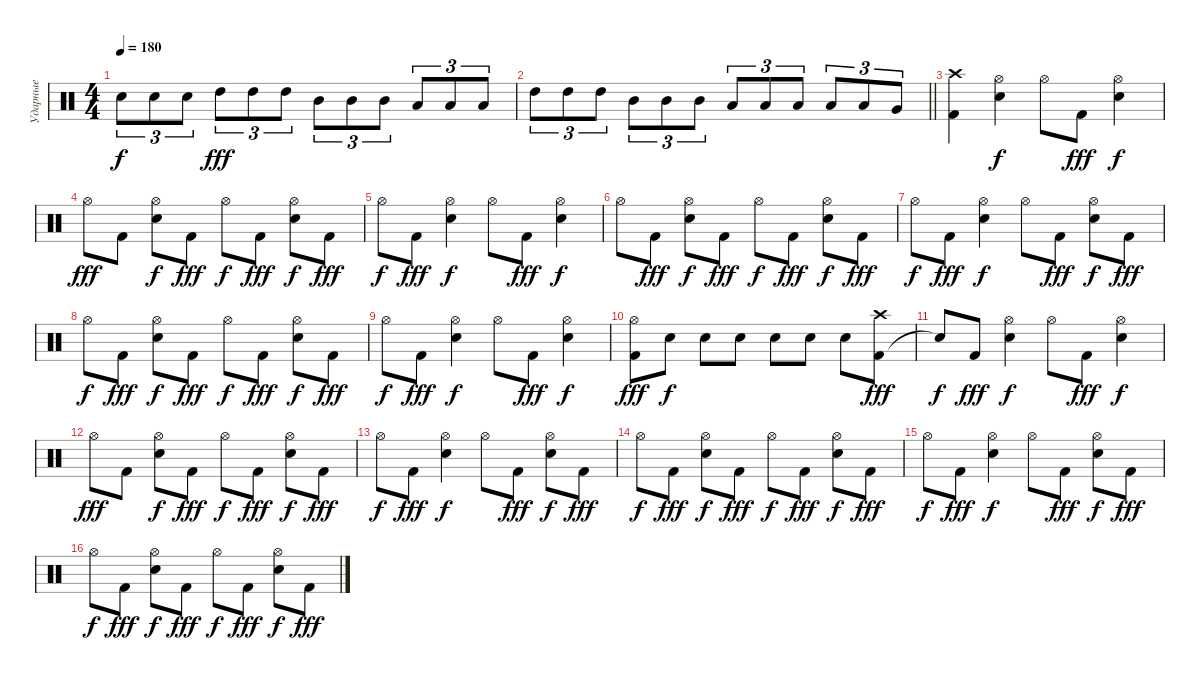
\track ("Ударные" "Ударные") {instrument percussion}
\staff
\articulation defaults
\ts (4 4)
\tempo 180
\clef neutral
\ks c "Snare (hit) 2".8{tu (3 2) dy f} "Snare (hit) 2".8{tu (3 2)} "Snare (hit) 2".8{tu (3 2)} "High Tom (hit)".8{tu (3 2) dy fff} "High Tom (hit)".8{tu (3 2)} "High Tom (hit)".8{tu (3 2)} "Mid Tom (hit)".8{tu (3 2)} "Mid Tom (hit)".8{tu (3 2)} "Mid Tom (hit)".8{tu (3 2)} "Low Tom (hit)".8{tu (3 2)} "Low Tom (hit)".8{tu (3 2)} "Low Tom (hit)".8{tu (3 2)}
|
\barLineRight lightlight "High Tom (hit)".8{tu (3 2)} "High Tom (hit)".8{tu (3 2)} "High Tom (hit)".8{tu (3 2)} "Mid Tom (hit)".8{tu (3 2)} "Mid Tom (hit)".8{tu (3 2)} "Mid Tom (hit)".8{tu (3 2)} "Low Tom (hit)".8{tu (3 2)} "Low Tom (hit)".8{tu (3 2)} "Low Tom (hit)".8{tu (3 2)} "Low Tom (hit)".8{tu (3 2)} "Low Tom (hit)".8{tu (3 2)} "Very Low Tom (hit)".8{tu (3 2)}
|
("Kick (hit) 2" "Crash high (hit)").4 ("Snare (hit) 2" "Hi-Hat (open)").4{dy f} "Hi-Hat (open)".8 "Kick (hit) 2".8{dy fff} ("Snare (hit) 2" "Hi-Hat (open)").4{dy f} |
"Hi-Hat (open)".8{dy fff} "Kick (hit) 2".8 ("Snare (hit) 2" "Hi-Hat (open)").8{dy f} "Kick (hit) 2".8{dy fff} "Hi-Hat (open)".8{dy f} "Kick (hit) 2".8{dy fff} ("Snare (hit) 2" "Hi-Hat (open)").8{dy f} "Kick (hit) 2".8{dy fff} |
"Hi-Hat (open)".8{dy f} "Kick (hit) 2".8{dy fff} ("Snare (hit) 2" "Hi-Hat (open)").4{dy f} "Hi-Hat (open)".8 "Kick (hit) 2".8{dy fff} ("Snare (hit) 2" "Hi-Hat (open)").4{dy f} |
"Hi-Hat (open)".8 "Kick (hit) 2".8{dy fff} ("Snare (hit) 2" "Hi-Hat (open)").8{dy f} "Kick (hit) 2".8{dy fff} "Hi-Hat (open)".8{dy f} "Kick (hit) 2".8{dy fff} ("Snare (hit) 2" "Hi-Hat (open)").8{dy f} "Kick (hit) 2".8{dy fff} |
"Hi-Hat (open)".8{dy f} "Kick (hit) 2".8{dy fff} ("Snare (hit) 2" "Hi-Hat (open)").4{dy f} "Hi-Hat (open)".8 "Kick (hit) 2".8{dy fff} ("Snare (hit) 2" "Hi-Hat (open)").8{dy f} "Kick (hit) 2".8{dy fff} |
"Hi-Hat (open)".8{dy f} "Kick (hit) 2".8{dy fff} ("Snare (hit) 2" "Hi-Hat (open)").8{dy f} "Kick (hit) 2".8{dy fff} "Hi-Hat (open)".8{dy f} "Kick (hit) 2".8{dy fff} ("Snare (hit) 2" "Hi-Hat (open)").8{dy f} "Kick (hit) 2".8{dy fff} |
"Hi-Hat (open)".8{dy f} "Kick (hit) 2".8{dy fff} ("Snare (hit) 2" "Hi-Hat (open)").4{dy f} "Hi-Hat (open)".8 "Kick (hit) 2".8{dy fff} ("Snare (hit) 2" "Hi-Hat (open)").4{dy f} |
("Kick (hit) 2" "Hi-Hat (open)").8{dy fff} "Snare (hit) 2".8{dy f} "Snare (hit) 2".8 "Snare (hit) 2".8 "Snare (hit) 2".8 "Electric Snare (hit)".8 "Electric Snare (hit)".8 ("Kick (hit) 2" "Crash high (hit)").8{dy fff} |
"Snare (hit)"{t}.8{dy f} "Kick (hit) 2".8{dy fff} ("Snare (hit) 2" "Hi-Hat (open)").4{dy f} "Hi-Hat (open)".8 "Kick (hit) 2".8{dy fff} ("Snare (hit) 2" "Hi-Hat (open)").4{dy f} |
"Hi-Hat (open)".8{dy fff} "Kick (hit) 2".8 ("Snare (hit) 2" "Hi-Hat (open)").8{dy f} "Kick (hit) 2".8{dy fff} "Hi-Hat (open)".8{dy f} "Kick (hit) 2".8{dy fff} ("Snare (hit) 2" "Hi-Hat (open)").8{dy f} "Kick (hit) 2".8{dy fff} |
"Hi-Hat (open)".8{dy f} "Kick (hit) 2".8{dy fff} ("Snare (hit) 2" "Hi-Hat (open)").4{dy f} "Hi-Hat (open)".8 "Kick (hit) 2".8{dy fff} ("Snare (hit) 2" "Hi-Hat (open)").8{dy f} "Kick (hit) 2".8{dy fff} |
"Hi-Hat (open)".8{dy f} "Kick (hit) 2".8{dy fff} ("Snare (hit) 2" "Hi-Hat (open)").8{dy f} "Kick (hit) 2".8{dy fff} "Hi-Hat (open)".8{dy f} "Kick (hit) 2".8{dy fff} ("Snare (hit) 2" "Hi-Hat (open)").8{dy f} "Kick (hit) 2".8{dy fff} |
"Hi-Hat (open)".8{dy f} "Kick (hit) 2".8{dy fff} ("Snare (hit) 2" "Hi-Hat (open)").4{dy f} "Hi-Hat (open)".8 "Kick (hit) 2".8{dy fff} ("Snare (hit) 2" "Hi-Hat (open)").8{dy f} "Kick (hit) 2".8{dy fff} |
"Hi-Hat (open)".8{dy f} "Kick (hit) 2".8{dy fff} ("Snare (hit) 2" "Hi-Hat (open)").8{dy f} "Kick (hit) 2".8{dy fff} "Hi-Hat (open)".8{dy f} "Kick (hit) 2".8{dy fff} ("Snare (hit) 2" "Hi-Hat (open)").8{dy f} "Kick (hit) 2".8{dy fff}
